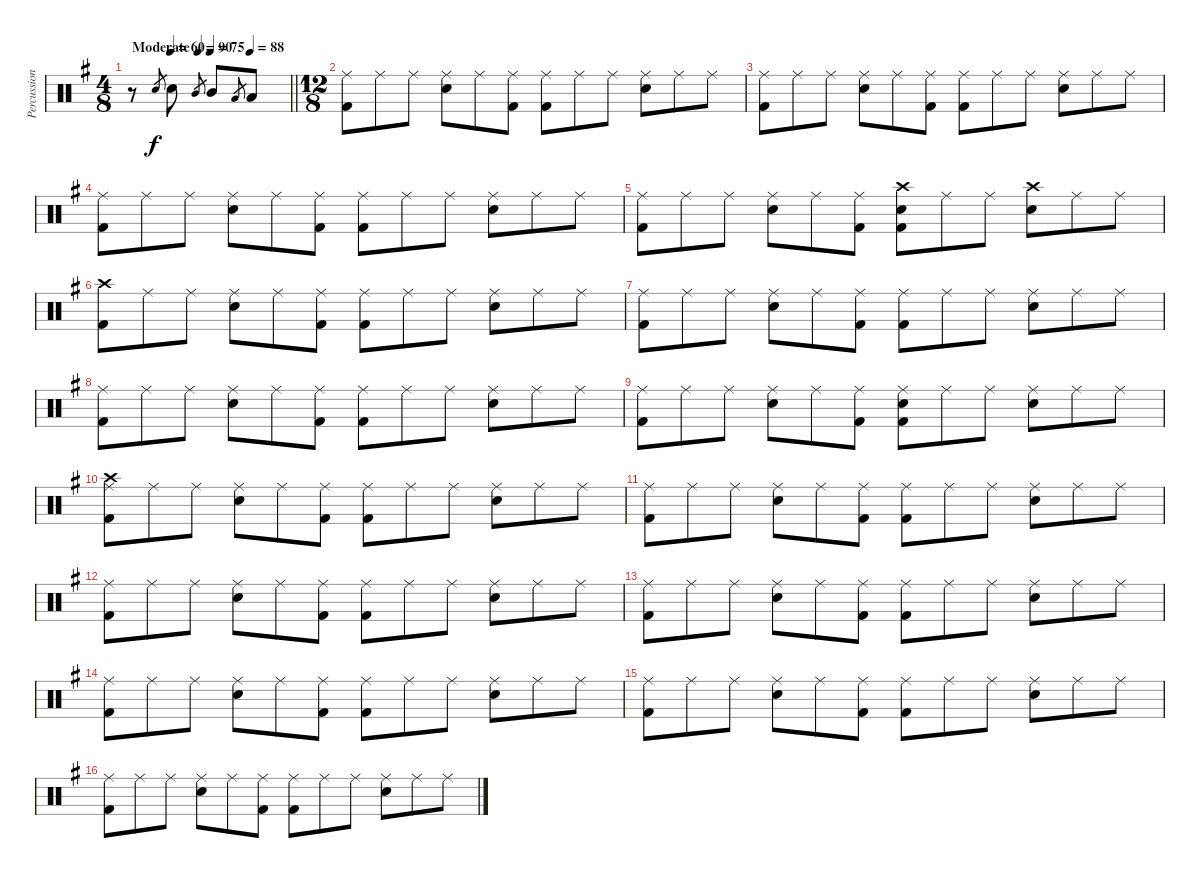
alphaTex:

\track ("Percussion" "Percussion") {instrument percussion}
\staff {score}
\articulation defaults
\ts (4 8)
\tempo (90 "Moderate")
\tempo (60 0.25)
\tempo (75 0.5)
\tempo (88 0.75)
\tempo (90 "Moderate")
\clef neutral
\barLineRight lightlight
\ks g
r.8{dy f} "Snare (hit) 2".8{gr} "Snare (hit) 2".8 "Mid Tom (hit)".8{gr} "Mid Tom (hit)".8 "Low Tom (hit)".8{gr} "Low Tom (hit)".8 |
\ts (12 8)
("Ride (middle)" "Kick (hit) 2").8 "Ride (middle)".8 "Ride (middle)".8 ("Ride (middle)" "Snare (hit) 2").8 "Ride (middle)".8 ("Ride (middle)" "Kick (hit) 2").8 ("Ride (middle)" "Kick (hit) 2").8 "Ride (middle)".8 "Ride (middle)".8 ("Ride (middle)" "Snare (hit) 2").8 "Ride (middle)".8 "Ride (middle)".8 |
("Ride (middle)" "Kick (hit) 2").8 "Ride (middle)".8 "Ride (middle)".8 ("Ride (middle)" "Snare (hit) 2").8 "Ride (middle)".8 ("Ride (middle)" "Kick (hit) 2").8 ("Ride (middle)" "Kick (hit) 2").8 "Ride (middle)".8 "Ride (middle)".8 ("Ride (middle)" "Snare (hit) 2").8 "Ride (middle)".8 "Ride (middle)".8 |
("Ride (middle)" "Kick (hit) 2").8 "Ride (middle)".8 "Ride (middle)".8 ("Ride (middle)" "Snare (hit) 2").8 "Ride (middle)".8 ("Ride (middle)" "Kick (hit) 2").8 ("Ride (middle)" "Kick (hit) 2").8 "Ride (middle)".8 "Ride (middle)".8 ("Ride (middle)" "Snare (hit) 2").8 "Ride (middle)".8 "Ride (middle)".8 |
("Ride (middle)" "Kick (hit) 2").8 "Ride (middle)".8 "Ride (middle)".8 ("Ride (middle)" "Snare (hit) 2").8 "Ride (middle)".8 ("Ride (middle)" "Kick (hit) 2").8 ("Crash high (hit)" "Snare (hit) 2" "Kick (hit) 2").8 "Ride (middle)".8 "Ride (middle)".8 ("Crash high (hit)" "Snare (hit) 2").8 "Ride (middle)".8 "Ride (middle)".8 |
("Crash high (hit)" "Kick (hit) 2").8 "Ride (middle)".8 "Ride (middle)".8 ("Ride (middle)" "Snare (hit) 2").8 "Ride (middle)".8 ("Ride (middle)" "Kick (hit) 2").8 ("Ride (middle)" "Kick (hit) 2").8 "Ride (middle)".8 "Ride (middle)".8 ("Ride (middle)" "Snare (hit) 2").8 "Ride (middle)".8 "Ride (middle)".8 |
("Ride (middle)" "Kick (hit) 2").8 "Ride (middle)".8 "Ride (middle)".8 ("Ride (middle)" "Snare (hit) 2").8 "Ride (middle)".8 ("Ride (middle)" "Kick (hit) 2").8 ("Ride (middle)" "Kick (hit) 2").8 "Ride (middle)".8 "Ride (middle)".8 ("Ride (middle)" "Snare (hit) 2").8 "Ride (middle)".8 "Ride (middle)".8 |
("Ride (middle)" "Kick (hit) 2").8 "Ride (middle)".8 "Ride (middle)".8 ("Ride (middle)" "Snare (hit) 2").8 "Ride (middle)".8 ("Ride (middle)" "Kick (hit) 2").8 ("Ride (middle)" "Kick (hit) 2").8 "Ride (middle)".8 "Ride (middle)".8 ("Ride (middle)" "Snare (hit) 2").8 "Ride (middle)".8 "Ride (middle)".8 |
("Ride (middle)" "Kick (hit) 2").8 "Ride (middle)".8 "Ride (middle)".8 ("Ride (middle)" "Snare (hit) 2").8 "Ride (middle)".8 ("Ride (middle)" "Kick (hit) 2").8 ("Ride (middle)" "Snare (hit) 2" "Kick (hit) 2").8 "Ride (middle)".8 "Ride (middle)".8 ("Ride (middle)" "Snare (hit) 2").8 "Ride (middle)".8 "Ride (middle)".8 |
("Ride (middle)" "Crash high (hit)" "Kick (hit) 2").8 "Ride (middle)".8 "Ride (middle)".8 ("Ride (middle)" "Snare (hit) 2").8 "Ride (middle)".8 ("Ride (middle)" "Kick (hit) 2").8 ("Ride (middle)" "Kick (hit) 2").8 "Ride (middle)".8 "Ride (middle)".8 ("Ride (middle)" "Snare (hit) 2").8 "Ride (middle)".8 "Ride (middle)".8 |
("Ride (middle)" "Kick (hit) 2").8 "Ride (middle)".8 "Ride (middle)".8 ("Ride (middle)" "Snare (hit) 2").8 "Ride (middle)".8 ("Ride (middle)" "Kick (hit) 2").8 ("Ride (middle)" "Kick (hit) 2").8 "Ride (middle)".8 "Ride (middle)".8 ("Ride (middle)" "Snare (hit) 2").8 "Ride (middle)".8 "Ride (middle)".8 |
("Ride (middle)" "Kick (hit) 2").8 "Ride (middle)".8 "Ride (middle)".8 ("Ride (middle)" "Snare (hit) 2").8 "Ride (middle)".8 ("Ride (middle)" "Kick (hit) 2").8 ("Ride (middle)" "Kick (hit) 2").8 "Ride (middle)".8 "Ride (middle)".8 ("Ride (middle)" "Snare (hit) 2").8 "Ride (middle)".8 "Ride (middle)".8 |
("Ride (middle)" "Kick (hit) 2").8 "Ride (middle)".8 "Ride (middle)".8 ("Ride (middle)" "Snare (hit) 2").8 "Ride (middle)".8 ("Ride (middle)" "Kick (hit) 2").8 ("Ride (middle)" "Kick (hit) 2").8 "Ride (middle)".8 "Ride (middle)".8 ("Ride (middle)" "Snare (hit) 2").8 "Ride (middle)".8 "Ride (middle)".8 |
("Ride (middle)" "Kick (hit) 2").8 "Ride (middle)".8 "Ride (middle)".8 ("Ride (middle)" "Snare (hit) 2").8 "Ride (middle)".8 ("Ride (middle)" "Kick (hit) 2").8 ("Ride (middle)" "Kick (hit) 2").8 "Ride (middle)".8 "Ride (middle)".8 ("Ride (middle)" "Snare (hit) 2").8 "Ride (middle)".8 "Ride (middle)".8 |
("Ride (middle)" "Kick (hit) 2").8 "Ride (middle)".8 "Ride (middle)".8 ("Ride (middle)" "Snare (hit) 2").8 "Ride (middle)".8 ("Ride (middle)" "Kick (hit) 2").8 ("Ride (middle)" "Kick (hit) 2").8 "Ride (middle)".8 "Ride (middle)".8 ("Ride (middle)" "Snare (hit) 2").8 "Ride (middle)".8 "Ride (middle)".8 |
("Ride (middle)" "Kick (hit) 2").8 "Ride (middle)".8 "Ride (middle)".8 ("Ride (middle)" "Snare (hit) 2").8 "Ride (middle)".8 ("Ride (middle)" "Kick (hit) 2").8 ("Ride (middle)" "Kick (hit) 2").8 "Ride (middle)".8 "Ride (middle)".8 ("Ride (middle)" "Snare (hit) 2").8 "Ride (middle)".8 "Ride (middle)".8
